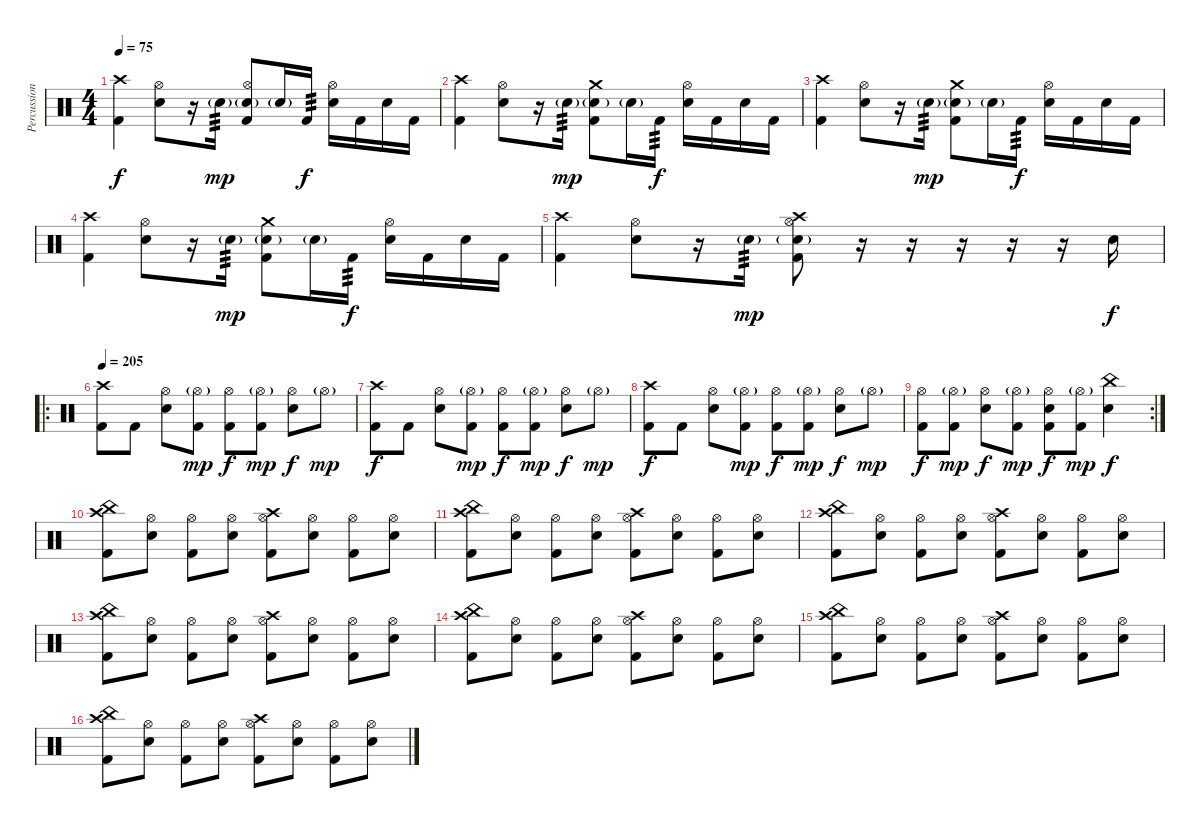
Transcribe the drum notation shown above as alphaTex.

\track ("Percussion" "Percussion") {instrument percussion}
\staff {score}
\articulation defaults
\ts (4 4)
\tempo 75
\clef neutral
\ks c
("Crash high (hit)" "Kick (hit) 2").4{dy f} ("Hi-Hat (open)" "Electric Snare (hit)").8 r.16 "Electric Snare (hit)"{g}.16{tp 3 dy mp} ("Hi-Hat (open)" "Electric Snare (hit)"{g} "Kick (hit) 2").8 "Electric Snare (hit)"{g}.16 "Kick (hit) 2".16{tp 3 dy f} ("Hi-Hat (open)" "Electric Snare (hit)").16 "Kick (hit) 2".16 "Electric Snare (hit)".16 "Kick (hit) 2".16 |
("Crash high (hit)" "Kick (hit) 2").4 ("Hi-Hat (open)" "Electric Snare (hit)").8 r.16 "Electric Snare (hit)"{g}.16{tp 3 dy mp} ("Crash medium (hit)" "Electric Snare (hit)"{g} "Kick (hit) 2").8 "Electric Snare (hit)"{g}.16 "Kick (hit) 2".16{tp 3 dy f} ("Hi-Hat (open)" "Electric Snare (hit)").16 "Kick (hit) 2".16 "Electric Snare (hit)".16 "Kick (hit) 2".16 |
("Crash high (hit)" "Kick (hit) 2").4 ("Hi-Hat (open)" "Electric Snare (hit)").8 r.16 "Electric Snare (hit)"{g}.16{tp 3 dy mp} ("Crash medium (hit)" "Electric Snare (hit)"{g} "Kick (hit) 2").8 "Electric Snare (hit)"{g}.16 "Kick (hit) 2".16{tp 3 dy f} ("Hi-Hat (open)" "Electric Snare (hit)").16 "Kick (hit) 2".16 "Electric Snare (hit)".16 "Kick (hit) 2".16 |
("Crash high (hit)" "Kick (hit) 2").4 ("Hi-Hat (open)" "Electric Snare (hit)").8 r.16 "Electric Snare (hit)"{g}.16{tp 3 dy mp} ("Crash medium (hit)" "Electric Snare (hit)"{g} "Kick (hit) 2").8 "Electric Snare (hit)"{g}.16 "Kick (hit) 2".16{tp 3 dy f} ("Hi-Hat (open)" "Electric Snare (hit)").16 "Kick (hit) 2".16 "Electric Snare (hit)".16 "Kick (hit) 2".16 |
("Crash high (hit)" "Kick (hit) 2").4 ("Hi-Hat (open)" "Electric Snare (hit)").8 r.16 "Electric Snare (hit)"{g}.16{tp 3 dy mp} ("Crash high (hit)" "Hi-Hat (open)" "Electric Snare (hit)"{g} "Kick (hit) 2").8 r.16 r.16 r.16 r.16 r.16 "Electric Snare (hit)".16{dy f} |
\ro
\tempo 205
("Crash high (hit)" "Kick (hit) 2").8 "Kick (hit) 2".8 ("Hi-Hat (open)" "Electric Snare (hit)").8 ("Hi-Hat (open)"{g} "Kick (hit) 2").8{dy mp} ("Hi-Hat (open)" "Kick (hit) 2").8{dy f} ("Hi-Hat (open)"{g} "Kick (hit) 2").8{dy mp} ("Hi-Hat (open)" "Electric Snare (hit)").8{dy f} "Hi-Hat (open)"{g}.8{dy mp} |
("Crash high (hit)" "Kick (hit) 2").8{dy f} "Kick (hit) 2".8 ("Hi-Hat (open)" "Electric Snare (hit)").8 ("Hi-Hat (open)"{g} "Kick (hit) 2").8{dy mp} ("Hi-Hat (open)" "Kick (hit) 2").8{dy f} ("Hi-Hat (open)"{g} "Kick (hit) 2").8{dy mp} ("Hi-Hat (open)" "Electric Snare (hit)").8{dy f} "Hi-Hat (open)"{g}.8{dy mp} |
("Crash high (hit)" "Kick (hit) 2").8{dy f} "Kick (hit) 2".8 ("Hi-Hat (open)" "Electric Snare (hit)").8 ("Hi-Hat (open)"{g} "Kick (hit) 2").8{dy mp} ("Hi-Hat (open)" "Kick (hit) 2").8{dy f} ("Hi-Hat (open)"{g} "Kick (hit) 2").8{dy mp} ("Hi-Hat (open)" "Electric Snare (hit)").8{dy f} "Hi-Hat (open)"{g}.8{dy mp} |
\rc 2
("Hi-Hat (open)" "Kick (hit) 2").8{dy f} ("Hi-Hat (open)"{g} "Kick (hit) 2").8{dy mp} ("Hi-Hat (open)" "Electric Snare (hit)").8{dy f} ("Hi-Hat (open)"{g} "Kick (hit) 2").8{dy mp} ("Hi-Hat (open)" "Electric Snare (hit)" "Kick (hit) 2").8{dy f} ("Hi-Hat (open)"{g} "Kick (hit) 2").8{dy mp} ("China (hit)" "Electric Snare (hit)").4{dy f} |
("China (hit)" "Crash high (hit)" "Kick (hit) 2").8 ("Hi-Hat (open)" "Electric Snare (hit)").8 ("Hi-Hat (open)" "Kick (hit) 2").8 ("Hi-Hat (open)" "Electric Snare (hit)").8 ("Crash high (hit)" "Hi-Hat (open)" "Kick (hit) 2").8 ("Hi-Hat (open)" "Electric Snare (hit)").8 ("Hi-Hat (open)" "Kick (hit) 2").8 ("Hi-Hat (open)" "Electric Snare (hit)").8 |
("China (hit)" "Crash high (hit)" "Kick (hit) 2").8 ("Hi-Hat (open)" "Electric Snare (hit)").8 ("Hi-Hat (open)" "Kick (hit) 2").8 ("Hi-Hat (open)" "Electric Snare (hit)").8 ("Crash high (hit)" "Hi-Hat (open)" "Kick (hit) 2").8 ("Hi-Hat (open)" "Electric Snare (hit)").8 ("Hi-Hat (open)" "Kick (hit) 2").8 ("Hi-Hat (open)" "Electric Snare (hit)").8 |
("China (hit)" "Crash high (hit)" "Kick (hit) 2").8 ("Hi-Hat (open)" "Electric Snare (hit)").8 ("Hi-Hat (open)" "Kick (hit) 2").8 ("Hi-Hat (open)" "Electric Snare (hit)").8 ("Crash high (hit)" "Hi-Hat (open)" "Kick (hit) 2").8 ("Hi-Hat (open)" "Electric Snare (hit)").8 ("Hi-Hat (open)" "Kick (hit) 2").8 ("Hi-Hat (open)" "Electric Snare (hit)").8 |
("China (hit)" "Crash high (hit)" "Kick (hit) 2").8 ("Hi-Hat (open)" "Electric Snare (hit)").8 ("Hi-Hat (open)" "Kick (hit) 2").8 ("Hi-Hat (open)" "Electric Snare (hit)").8 ("Crash high (hit)" "Hi-Hat (open)" "Kick (hit) 2").8 ("Hi-Hat (open)" "Electric Snare (hit)").8 ("Hi-Hat (open)" "Kick (hit) 2").8 ("Hi-Hat (open)" "Electric Snare (hit)").8 |
("China (hit)" "Crash high (hit)" "Kick (hit) 2").8 ("Hi-Hat (open)" "Electric Snare (hit)").8 ("Hi-Hat (open)" "Kick (hit) 2").8 ("Hi-Hat (open)" "Electric Snare (hit)").8 ("Crash high (hit)" "Hi-Hat (open)" "Kick (hit) 2").8 ("Hi-Hat (open)" "Electric Snare (hit)").8 ("Hi-Hat (open)" "Kick (hit) 2").8 ("Hi-Hat (open)" "Electric Snare (hit)").8 |
("China (hit)" "Crash high (hit)" "Kick (hit) 2").8 ("Hi-Hat (open)" "Electric Snare (hit)").8 ("Hi-Hat (open)" "Kick (hit) 2").8 ("Hi-Hat (open)" "Electric Snare (hit)").8 ("Crash high (hit)" "Hi-Hat (open)" "Kick (hit) 2").8 ("Hi-Hat (open)" "Electric Snare (hit)").8 ("Hi-Hat (open)" "Kick (hit) 2").8 ("Hi-Hat (open)" "Electric Snare (hit)").8 |
("China (hit)" "Crash high (hit)" "Kick (hit) 2").8 ("Hi-Hat (open)" "Electric Snare (hit)").8 ("Hi-Hat (open)" "Kick (hit) 2").8 ("Hi-Hat (open)" "Electric Snare (hit)").8 ("Crash high (hit)" "Hi-Hat (open)" "Kick (hit) 2").8 ("Hi-Hat (open)" "Electric Snare (hit)").8 ("Hi-Hat (open)" "Kick (hit) 2").8 ("Hi-Hat (open)" "Electric Snare (hit)").8
